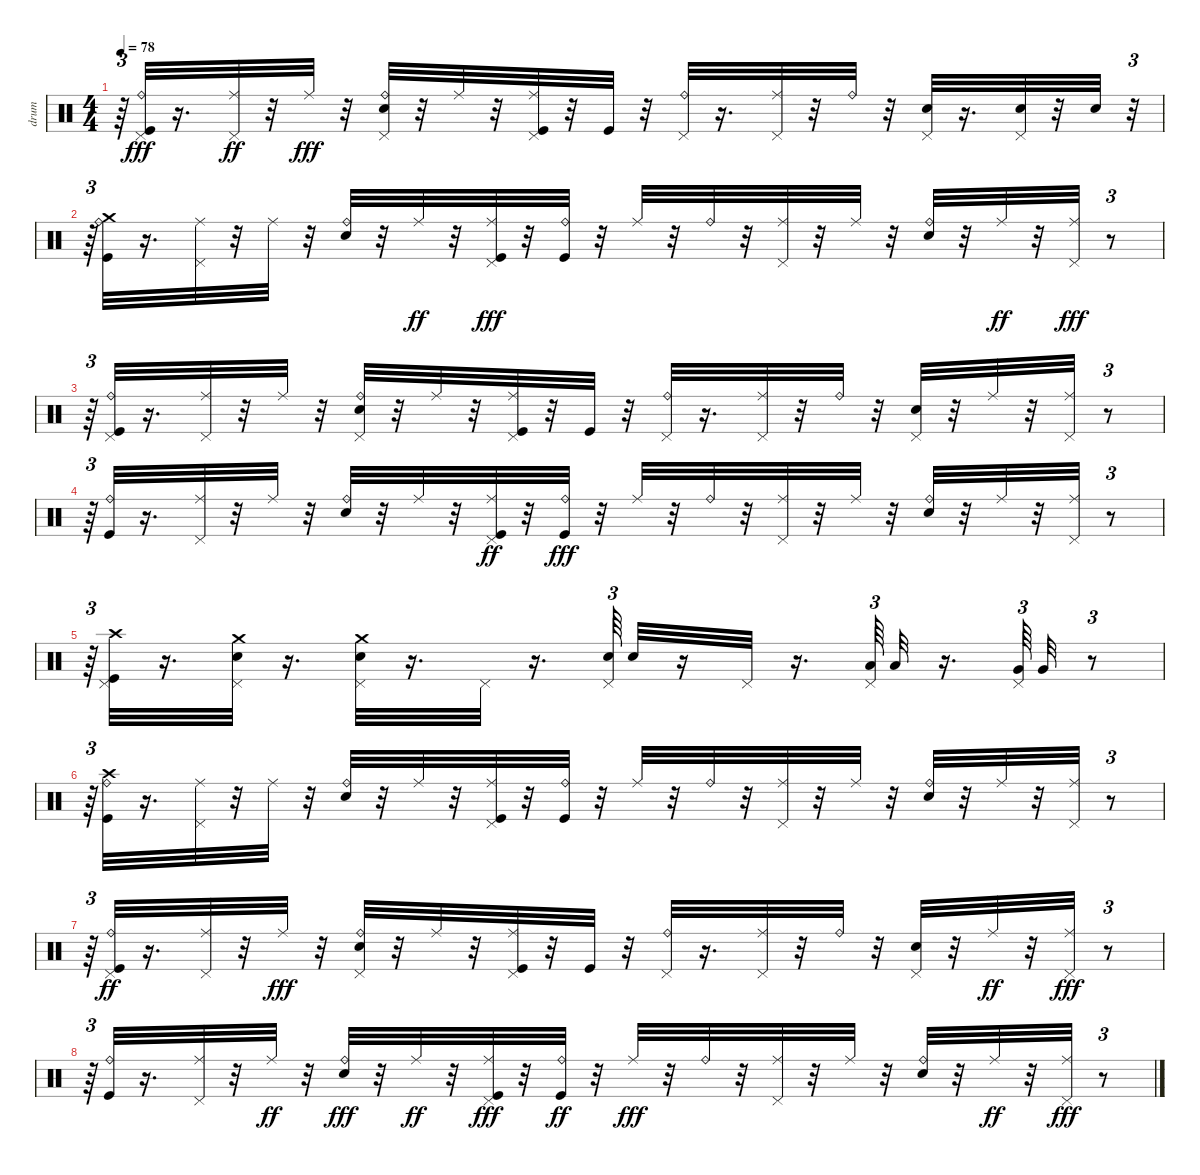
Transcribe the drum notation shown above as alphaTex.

\track ("drum" "drum") {instrument percussion}
\staff {score}
\articulation defaults
\ts (4 4)
\tempo 78
\clef neutral
\ks c
r.64{tu (3 2) dy fff} ("Ride (bell)" "Pedal Hi-Hat (hit)" "Kick (hit)").32 r.16{d} ("Ride (middle)" "Pedal Hi-Hat (hit)").32{dy ff} r.32 "Ride (middle)".32{dy fff} r.32 ("Ride (bell)" "Pedal Hi-Hat (hit)" "Electric Snare (hit)").32 r.32 "Ride (middle)".32 r.32 ("Ride (middle)" "Pedal Hi-Hat (hit)" "Kick (hit)").32 r.32 "Kick (hit)".32 r.32 ("Ride (bell)" "Pedal Hi-Hat (hit)").32 r.16{d} ("Ride (middle)" "Pedal Hi-Hat (hit)").32 r.32 "Ride (bell)".32 r.32 ("Pedal Hi-Hat (hit)" "Electric Snare (hit)").32 r.16{d} ("Pedal Hi-Hat (hit)" "Electric Snare (hit)").32 r.32 "Electric Snare (hit)".32 r.32{tu (3 2)} |
r.64{tu (3 2)} ("Ride (bell)" "Kick (hit)" "Crash medium (hit)").32 r.16{d} ("Ride (middle)" "Pedal Hi-Hat (hit)").32 r.32 "Ride (middle)".32 r.32 ("Ride (bell)" "Electric Snare (hit)").32 r.32 "Ride (middle)".32{dy ff} r.32 ("Ride (middle)" "Pedal Hi-Hat (hit)" "Kick (hit)").32{dy fff} r.32 ("Ride (bell)" "Kick (hit)").32 r.32 "Ride (middle)".32 r.32 "Ride (bell)".32 r.32 ("Ride (middle)" "Pedal Hi-Hat (hit)").32 r.32 "Ride (middle)".32 r.32 ("Ride (bell)" "Electric Snare (hit)").32 r.32 "Ride (middle)".32{dy ff} r.32 ("Ride (middle)" "Pedal Hi-Hat (hit)").32{dy fff} r.8{tu (3 2)} |
r.64{tu (3 2)} ("Ride (bell)" "Pedal Hi-Hat (hit)" "Kick (hit)").32 r.16{d} ("Ride (middle)" "Pedal Hi-Hat (hit)").32 r.32 "Ride (middle)".32 r.32 ("Ride (bell)" "Pedal Hi-Hat (hit)" "Electric Snare (hit)").32 r.32 "Ride (middle)".32 r.32 ("Ride (middle)" "Pedal Hi-Hat (hit)" "Kick (hit)").32 r.32 "Kick (hit)".32 r.32 ("Ride (bell)" "Pedal Hi-Hat (hit)").32 r.16{d} ("Ride (middle)" "Pedal Hi-Hat (hit)").32 r.32 "Ride (bell)".32 r.32 ("Pedal Hi-Hat (hit)" "Electric Snare (hit)").32 r.32 "Ride (middle)".32 r.32 ("Ride (middle)" "Pedal Hi-Hat (hit)").32 r.8{tu (3 2)} |
r.64{tu (3 2)} ("Ride (bell)" "Kick (hit)").32 r.16{d} ("Ride (middle)" "Pedal Hi-Hat (hit)").32 r.32 "Ride (middle)".32 r.32 ("Ride (bell)" "Electric Snare (hit)").32 r.32 "Ride (middle)".32 r.32 ("Ride (middle)" "Pedal Hi-Hat (hit)" "Kick (hit)").32{dy ff} r.32 ("Ride (bell)" "Kick (hit)").32{dy fff} r.32 "Ride (middle)".32 r.32 "Ride (bell)".32 r.32 ("Ride (middle)" "Pedal Hi-Hat (hit)").32 r.32 "Ride (middle)".32 r.32 ("Ride (bell)" "Electric Snare (hit)").32 r.32 "Ride (middle)".32 r.32 ("Ride (middle)" "Pedal Hi-Hat (hit)").32 r.8{tu (3 2)} |
r.64{tu (3 2)} ("Pedal Hi-Hat (hit)" "Crash high (hit)" "Kick (hit)").32 r.16{d} ("Pedal Hi-Hat (hit)" "Crash medium (hit)" "Electric Snare (hit)").32 r.16{d} ("Pedal Hi-Hat (hit)" "Crash medium (hit)" "Electric Snare (hit)").32 r.16{d} "Pedal Hi-Hat (hit)".32 r.16{d} ("Pedal Hi-Hat (hit)" "Electric Snare (hit)").64{tu (3 2)} "Electric Snare (hit)".32 r.16 "Pedal Hi-Hat (hit)".32 r.16{d} ("Pedal Hi-Hat (hit)" "Low Tom (hit)").64{tu (3 2)} "Low Tom (hit)".32 r.16{d} ("Pedal Hi-Hat (hit)" "Very Low Tom (hit)").64{tu (3 2)} "Very Low Tom (hit)".32 r.8{tu (3 2)} |
r.64{tu (3 2)} ("Ride (bell)" "Kick (hit)" "Crash high (hit)").32 r.16{d} ("Ride (middle)" "Pedal Hi-Hat (hit)").32 r.32 "Ride (middle)".32 r.32 ("Ride (bell)" "Electric Snare (hit)").32 r.32 "Ride (middle)".32 r.32 ("Ride (middle)" "Pedal Hi-Hat (hit)" "Kick (hit)").32 r.32 ("Ride (bell)" "Kick (hit)").32 r.32 "Ride (middle)".32 r.32 "Ride (bell)".32 r.32 ("Ride (middle)" "Pedal Hi-Hat (hit)").32 r.32 "Ride (middle)".32 r.32 ("Ride (bell)" "Electric Snare (hit)").32 r.32 "Ride (middle)".32 r.32 ("Ride (middle)" "Pedal Hi-Hat (hit)").32 r.8{tu (3 2)} |
r.64{tu (3 2)} ("Ride (bell)" "Pedal Hi-Hat (hit)" "Kick (hit)").32{dy ff} r.16{d} ("Ride (middle)" "Pedal Hi-Hat (hit)").32 r.32 "Ride (middle)".32{dy fff} r.32 ("Ride (bell)" "Pedal Hi-Hat (hit)" "Electric Snare (hit)").32 r.32 "Ride (middle)".32 r.32 ("Ride (middle)" "Pedal Hi-Hat (hit)" "Kick (hit)").32 r.32 "Kick (hit)".32 r.32 ("Ride (bell)" "Pedal Hi-Hat (hit)").32 r.16{d} ("Ride (middle)" "Pedal Hi-Hat (hit)").32 r.32 "Ride (bell)".32 r.32 ("Pedal Hi-Hat (hit)" "Electric Snare (hit)").32 r.32 "Ride (middle)".32{dy ff} r.32 ("Ride (middle)" "Pedal Hi-Hat (hit)").32{dy fff} r.8{tu (3 2)} |
r.64{tu (3 2)} ("Ride (bell)" "Kick (hit)").32 r.16{d} ("Ride (middle)" "Pedal Hi-Hat (hit)").32 r.32 "Ride (middle)".32{dy ff} r.32 ("Ride (bell)" "Electric Snare (hit)").32{dy fff} r.32 "Ride (middle)".32{dy ff} r.32 ("Ride (middle)" "Pedal Hi-Hat (hit)" "Kick (hit)").32{dy fff} r.32 ("Ride (bell)" "Kick (hit)").32{dy ff} r.32 "Ride (middle)".32{dy fff} r.32 "Ride (bell)".32 r.32 ("Ride (middle)" "Pedal Hi-Hat (hit)").32 r.32 "Ride (middle)".32 r.32 ("Ride (bell)" "Electric Snare (hit)").32 r.32 "Ride (middle)".32{dy ff} r.32 ("Ride (middle)" "Pedal Hi-Hat (hit)").32{dy fff} r.8{tu (3 2)}
